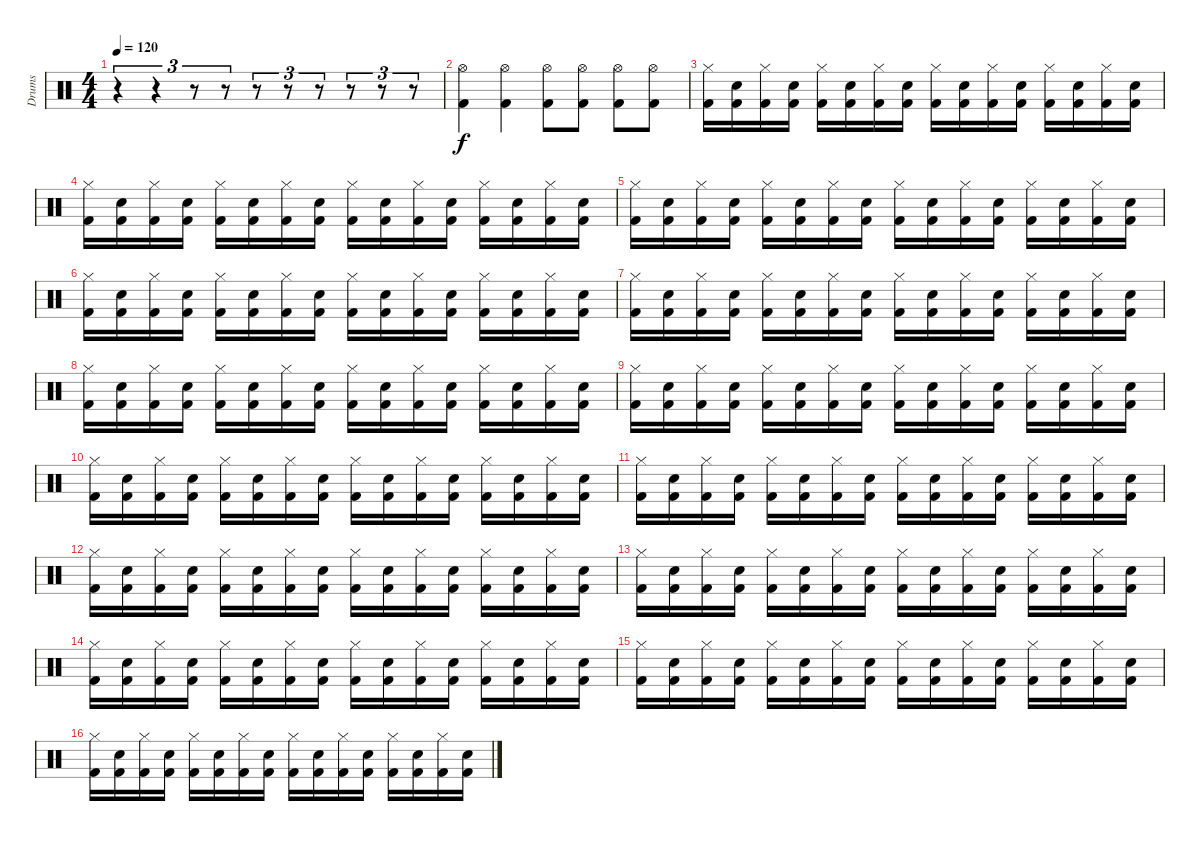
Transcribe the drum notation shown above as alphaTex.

\track ("Drums" "Drums") {instrument percussion}
\staff {score}
\articulation defaults
\ts (4 4)
\tempo 120
\clef neutral
\ks c
r.4{tu (3 2) dy f} r.4{tu (3 2)} r.8{tu (3 2)} r.8{tu (3 2)} r.8{tu (3 2)} r.8{tu (3 2)} r.8{tu (3 2)} r.8{tu (3 2)} r.8{tu (3 2)} r.8{tu (3 2)} |
("Kick (hit) 2" "Hi-Hat (open)").4 ("Kick (hit) 2" "Hi-Hat (open)").4 ("Kick (hit) 2" "Hi-Hat (open)").8 ("Kick (hit) 2" "Hi-Hat (open)").8 ("Kick (hit) 2" "Hi-Hat (open)").8 ("Kick (hit) 2" "Hi-Hat (open)").8 |
("Kick (hit) 2" "Hi-Hat (closed)").16 ("Kick (hit) 2" "Snare (hit) 2").16 ("Kick (hit) 2" "Hi-Hat (closed)").16 ("Kick (hit) 2" "Snare (hit) 2").16 ("Kick (hit) 2" "Hi-Hat (closed)").16 ("Kick (hit) 2" "Snare (hit) 2").16 ("Kick (hit) 2" "Hi-Hat (closed)").16 ("Kick (hit) 2" "Snare (hit) 2").16 ("Kick (hit) 2" "Hi-Hat (closed)").16 ("Kick (hit) 2" "Snare (hit) 2").16 ("Kick (hit) 2" "Hi-Hat (closed)").16 ("Kick (hit) 2" "Snare (hit) 2").16 ("Kick (hit) 2" "Hi-Hat (closed)").16 ("Kick (hit) 2" "Snare (hit) 2").16 ("Kick (hit) 2" "Hi-Hat (closed)").16 ("Kick (hit) 2" "Snare (hit) 2").16 |
("Kick (hit) 2" "Hi-Hat (closed)").16 ("Kick (hit) 2" "Snare (hit) 2").16 ("Kick (hit) 2" "Hi-Hat (closed)").16 ("Kick (hit) 2" "Snare (hit) 2").16 ("Kick (hit) 2" "Hi-Hat (closed)").16 ("Kick (hit) 2" "Snare (hit) 2").16 ("Kick (hit) 2" "Hi-Hat (closed)").16 ("Kick (hit) 2" "Snare (hit) 2").16 ("Kick (hit) 2" "Hi-Hat (closed)").16 ("Kick (hit) 2" "Snare (hit) 2").16 ("Kick (hit) 2" "Hi-Hat (closed)").16 ("Kick (hit) 2" "Snare (hit) 2").16 ("Kick (hit) 2" "Hi-Hat (closed)").16 ("Kick (hit) 2" "Snare (hit) 2").16 ("Kick (hit) 2" "Hi-Hat (closed)").16 ("Kick (hit) 2" "Snare (hit) 2").16 |
("Kick (hit) 2" "Hi-Hat (closed)").16 ("Kick (hit) 2" "Snare (hit) 2").16 ("Kick (hit) 2" "Hi-Hat (closed)").16 ("Kick (hit) 2" "Snare (hit) 2").16 ("Kick (hit) 2" "Hi-Hat (closed)").16 ("Kick (hit) 2" "Snare (hit) 2").16 ("Kick (hit) 2" "Hi-Hat (closed)").16 ("Kick (hit) 2" "Snare (hit) 2").16 ("Kick (hit) 2" "Hi-Hat (closed)").16 ("Kick (hit) 2" "Snare (hit) 2").16 ("Kick (hit) 2" "Hi-Hat (closed)").16 ("Kick (hit) 2" "Snare (hit) 2").16 ("Kick (hit) 2" "Hi-Hat (closed)").16 ("Kick (hit) 2" "Snare (hit) 2").16 ("Kick (hit) 2" "Hi-Hat (closed)").16 ("Kick (hit) 2" "Snare (hit) 2").16 |
("Kick (hit) 2" "Hi-Hat (closed)").16 ("Kick (hit) 2" "Snare (hit) 2").16 ("Kick (hit) 2" "Hi-Hat (closed)").16 ("Kick (hit) 2" "Snare (hit) 2").16 ("Kick (hit) 2" "Hi-Hat (closed)").16 ("Kick (hit) 2" "Snare (hit) 2").16 ("Kick (hit) 2" "Hi-Hat (closed)").16 ("Kick (hit) 2" "Snare (hit) 2").16 ("Kick (hit) 2" "Hi-Hat (closed)").16 ("Kick (hit) 2" "Snare (hit) 2").16 ("Kick (hit) 2" "Hi-Hat (closed)").16 ("Kick (hit) 2" "Snare (hit) 2").16 ("Kick (hit) 2" "Hi-Hat (closed)").16 ("Kick (hit) 2" "Snare (hit) 2").16 ("Kick (hit) 2" "Hi-Hat (closed)").16 ("Kick (hit) 2" "Snare (hit) 2").16 |
("Kick (hit) 2" "Hi-Hat (closed)").16 ("Kick (hit) 2" "Snare (hit) 2").16 ("Kick (hit) 2" "Hi-Hat (closed)").16 ("Kick (hit) 2" "Snare (hit) 2").16 ("Kick (hit) 2" "Hi-Hat (closed)").16 ("Kick (hit) 2" "Snare (hit) 2").16 ("Kick (hit) 2" "Hi-Hat (closed)").16 ("Kick (hit) 2" "Snare (hit) 2").16 ("Kick (hit) 2" "Hi-Hat (closed)").16 ("Kick (hit) 2" "Snare (hit) 2").16 ("Kick (hit) 2" "Hi-Hat (closed)").16 ("Kick (hit) 2" "Snare (hit) 2").16 ("Kick (hit) 2" "Hi-Hat (closed)").16 ("Kick (hit) 2" "Snare (hit) 2").16 ("Kick (hit) 2" "Hi-Hat (closed)").16 ("Kick (hit) 2" "Snare (hit) 2").16 |
("Kick (hit) 2" "Hi-Hat (closed)").16 ("Kick (hit) 2" "Snare (hit) 2").16 ("Kick (hit) 2" "Hi-Hat (closed)").16 ("Kick (hit) 2" "Snare (hit) 2").16 ("Kick (hit) 2" "Hi-Hat (closed)").16 ("Kick (hit) 2" "Snare (hit) 2").16 ("Kick (hit) 2" "Hi-Hat (closed)").16 ("Kick (hit) 2" "Snare (hit) 2").16 ("Kick (hit) 2" "Hi-Hat (closed)").16 ("Kick (hit) 2" "Snare (hit) 2").16 ("Kick (hit) 2" "Hi-Hat (closed)").16 ("Kick (hit) 2" "Snare (hit) 2").16 ("Kick (hit) 2" "Hi-Hat (closed)").16 ("Kick (hit) 2" "Snare (hit) 2").16 ("Kick (hit) 2" "Hi-Hat (closed)").16 ("Kick (hit) 2" "Snare (hit) 2").16 |
("Kick (hit) 2" "Hi-Hat (closed)").16 ("Kick (hit) 2" "Snare (hit) 2").16 ("Kick (hit) 2" "Hi-Hat (closed)").16 ("Kick (hit) 2" "Snare (hit) 2").16 ("Kick (hit) 2" "Hi-Hat (closed)").16 ("Kick (hit) 2" "Snare (hit) 2").16 ("Kick (hit) 2" "Hi-Hat (closed)").16 ("Kick (hit) 2" "Snare (hit) 2").16 ("Kick (hit) 2" "Hi-Hat (closed)").16 ("Kick (hit) 2" "Snare (hit) 2").16 ("Kick (hit) 2" "Hi-Hat (closed)").16 ("Kick (hit) 2" "Snare (hit) 2").16 ("Kick (hit) 2" "Hi-Hat (closed)").16 ("Kick (hit) 2" "Snare (hit) 2").16 ("Kick (hit) 2" "Hi-Hat (closed)").16 ("Kick (hit) 2" "Snare (hit) 2").16 |
("Kick (hit) 2" "Hi-Hat (closed)").16 ("Kick (hit) 2" "Snare (hit) 2").16 ("Kick (hit) 2" "Hi-Hat (closed)").16 ("Kick (hit) 2" "Snare (hit) 2").16 ("Kick (hit) 2" "Hi-Hat (closed)").16 ("Kick (hit) 2" "Snare (hit) 2").16 ("Kick (hit) 2" "Hi-Hat (closed)").16 ("Kick (hit) 2" "Snare (hit) 2").16 ("Kick (hit) 2" "Hi-Hat (closed)").16 ("Kick (hit) 2" "Snare (hit) 2").16 ("Kick (hit) 2" "Hi-Hat (closed)").16 ("Kick (hit) 2" "Snare (hit) 2").16 ("Kick (hit) 2" "Hi-Hat (closed)").16 ("Kick (hit) 2" "Snare (hit) 2").16 ("Kick (hit) 2" "Hi-Hat (closed)").16 ("Kick (hit) 2" "Snare (hit) 2").16 |
("Kick (hit) 2" "Hi-Hat (closed)").16 ("Kick (hit) 2" "Snare (hit) 2").16 ("Kick (hit) 2" "Hi-Hat (closed)").16 ("Kick (hit) 2" "Snare (hit) 2").16 ("Kick (hit) 2" "Hi-Hat (closed)").16 ("Kick (hit) 2" "Snare (hit) 2").16 ("Kick (hit) 2" "Hi-Hat (closed)").16 ("Kick (hit) 2" "Snare (hit) 2").16 ("Kick (hit) 2" "Hi-Hat (closed)").16 ("Kick (hit) 2" "Snare (hit) 2").16 ("Kick (hit) 2" "Hi-Hat (closed)").16 ("Kick (hit) 2" "Snare (hit) 2").16 ("Kick (hit) 2" "Hi-Hat (closed)").16 ("Kick (hit) 2" "Snare (hit) 2").16 ("Kick (hit) 2" "Hi-Hat (closed)").16 ("Kick (hit) 2" "Snare (hit) 2").16 |
("Kick (hit) 2" "Hi-Hat (closed)").16 ("Kick (hit) 2" "Snare (hit) 2").16 ("Kick (hit) 2" "Hi-Hat (closed)").16 ("Kick (hit) 2" "Snare (hit) 2").16 ("Kick (hit) 2" "Hi-Hat (closed)").16 ("Kick (hit) 2" "Snare (hit) 2").16 ("Kick (hit) 2" "Hi-Hat (closed)").16 ("Kick (hit) 2" "Snare (hit) 2").16 ("Kick (hit) 2" "Hi-Hat (closed)").16 ("Kick (hit) 2" "Snare (hit) 2").16 ("Kick (hit) 2" "Hi-Hat (closed)").16 ("Kick (hit) 2" "Snare (hit) 2").16 ("Kick (hit) 2" "Hi-Hat (closed)").16 ("Kick (hit) 2" "Snare (hit) 2").16 ("Kick (hit) 2" "Hi-Hat (closed)").16 ("Kick (hit) 2" "Snare (hit) 2").16 |
("Kick (hit) 2" "Hi-Hat (closed)").16 ("Kick (hit) 2" "Snare (hit) 2").16 ("Kick (hit) 2" "Hi-Hat (closed)").16 ("Kick (hit) 2" "Snare (hit) 2").16 ("Kick (hit) 2" "Hi-Hat (closed)").16 ("Kick (hit) 2" "Snare (hit) 2").16 ("Kick (hit) 2" "Hi-Hat (closed)").16 ("Kick (hit) 2" "Snare (hit) 2").16 ("Kick (hit) 2" "Hi-Hat (closed)").16 ("Kick (hit) 2" "Snare (hit) 2").16 ("Kick (hit) 2" "Hi-Hat (closed)").16 ("Kick (hit) 2" "Snare (hit) 2").16 ("Kick (hit) 2" "Hi-Hat (closed)").16 ("Kick (hit) 2" "Snare (hit) 2").16 ("Kick (hit) 2" "Hi-Hat (closed)").16 ("Kick (hit) 2" "Snare (hit) 2").16 |
("Kick (hit) 2" "Hi-Hat (closed)").16 ("Kick (hit) 2" "Snare (hit) 2").16 ("Kick (hit) 2" "Hi-Hat (closed)").16 ("Kick (hit) 2" "Snare (hit) 2").16 ("Kick (hit) 2" "Hi-Hat (closed)").16 ("Kick (hit) 2" "Snare (hit) 2").16 ("Kick (hit) 2" "Hi-Hat (closed)").16 ("Kick (hit) 2" "Snare (hit) 2").16 ("Kick (hit) 2" "Hi-Hat (closed)").16 ("Kick (hit) 2" "Snare (hit) 2").16 ("Kick (hit) 2" "Hi-Hat (closed)").16 ("Kick (hit) 2" "Snare (hit) 2").16 ("Kick (hit) 2" "Hi-Hat (closed)").16 ("Kick (hit) 2" "Snare (hit) 2").16 ("Kick (hit) 2" "Hi-Hat (closed)").16 ("Kick (hit) 2" "Snare (hit) 2").16 |
("Kick (hit) 2" "Hi-Hat (closed)").16 ("Kick (hit) 2" "Snare (hit) 2").16 ("Kick (hit) 2" "Hi-Hat (closed)").16 ("Kick (hit) 2" "Snare (hit) 2").16 ("Kick (hit) 2" "Hi-Hat (closed)").16 ("Kick (hit) 2" "Snare (hit) 2").16 ("Kick (hit) 2" "Hi-Hat (closed)").16 ("Kick (hit) 2" "Snare (hit) 2").16 ("Kick (hit) 2" "Hi-Hat (closed)").16 ("Kick (hit) 2" "Snare (hit) 2").16 ("Kick (hit) 2" "Hi-Hat (closed)").16 ("Kick (hit) 2" "Snare (hit) 2").16 ("Kick (hit) 2" "Hi-Hat (closed)").16 ("Kick (hit) 2" "Snare (hit) 2").16 ("Kick (hit) 2" "Hi-Hat (closed)").16 ("Kick (hit) 2" "Snare (hit) 2").16 |
("Kick (hit) 2" "Hi-Hat (closed)").16 ("Kick (hit) 2" "Snare (hit) 2").16 ("Kick (hit) 2" "Hi-Hat (closed)").16 ("Kick (hit) 2" "Snare (hit) 2").16 ("Kick (hit) 2" "Hi-Hat (closed)").16 ("Kick (hit) 2" "Snare (hit) 2").16 ("Kick (hit) 2" "Hi-Hat (closed)").16 ("Kick (hit) 2" "Snare (hit) 2").16 ("Kick (hit) 2" "Hi-Hat (closed)").16 ("Kick (hit) 2" "Snare (hit) 2").16 ("Kick (hit) 2" "Hi-Hat (closed)").16 ("Kick (hit) 2" "Snare (hit) 2").16 ("Kick (hit) 2" "Hi-Hat (closed)").16 ("Kick (hit) 2" "Snare (hit) 2").16 ("Kick (hit) 2" "Hi-Hat (closed)").16 ("Kick (hit) 2" "Snare (hit) 2").16
